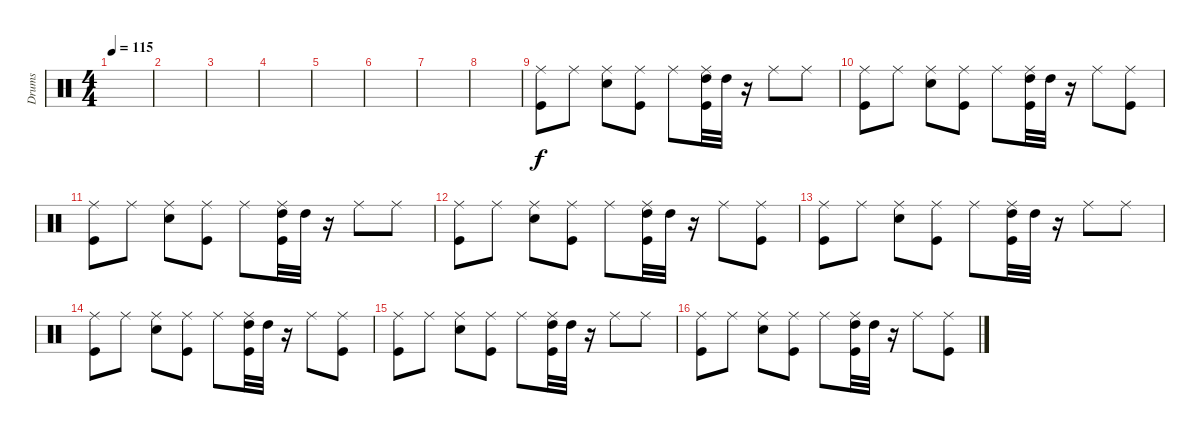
\track ("Drums" "Drums") {instrument percussion}
\staff {score}
\articulation defaults
\ts (4 4)
\tempo 115
\clef neutral
\ks c
|
|
|
|
|
|
|
|
("Kick (hit)" "Ride (middle)").8 "Ride (middle)".8 ("Snare (hit) 2" "Ride (middle)").8 ("Kick (hit)" "Ride (middle)").8 "Ride (middle)".8 ("Kick (hit)" "High Tom (hit)" "Ride (middle)").32 "High Tom (hit)".32 r.16 "Ride (middle)".8 "Ride (middle)".8 |
("Kick (hit)" "Ride (middle)").8 "Ride (middle)".8 ("Snare (hit) 2" "Ride (middle)").8 ("Kick (hit)" "Ride (middle)").8 "Ride (middle)".8 ("Kick (hit)" "High Tom (hit)" "Ride (middle)").32 "High Tom (hit)".32 r.16 "Ride (middle)".8 ("Kick (hit)" "Ride (middle)").8 |
("Kick (hit)" "Ride (middle)").8 "Ride (middle)".8 ("Snare (hit) 2" "Ride (middle)").8 ("Kick (hit)" "Ride (middle)").8 "Ride (middle)".8 ("Kick (hit)" "High Tom (hit)" "Ride (middle)").32 "High Tom (hit)".32 r.16 "Ride (middle)".8 "Ride (middle)".8 |
("Kick (hit)" "Ride (middle)").8 "Ride (middle)".8 ("Snare (hit) 2" "Ride (middle)").8 ("Kick (hit)" "Ride (middle)").8 "Ride (middle)".8 ("Kick (hit)" "High Tom (hit)" "Ride (middle)").32 "High Tom (hit)".32 r.16 "Ride (middle)".8 ("Kick (hit)" "Ride (middle)").8 |
("Kick (hit)" "Ride (middle)").8 "Ride (middle)".8 ("Snare (hit) 2" "Ride (middle)").8 ("Kick (hit)" "Ride (middle)").8 "Ride (middle)".8 ("Kick (hit)" "High Tom (hit)" "Ride (middle)").32 "High Tom (hit)".32 r.16 "Ride (middle)".8 "Ride (middle)".8 |
("Kick (hit)" "Ride (middle)").8 "Ride (middle)".8 ("Snare (hit) 2" "Ride (middle)").8 ("Kick (hit)" "Ride (middle)").8 "Ride (middle)".8 ("Kick (hit)" "High Tom (hit)" "Ride (middle)").32 "High Tom (hit)".32 r.16 "Ride (middle)".8 ("Kick (hit)" "Ride (middle)").8 |
("Kick (hit)" "Ride (middle)").8 "Ride (middle)".8 ("Snare (hit) 2" "Ride (middle)").8 ("Kick (hit)" "Ride (middle)").8 "Ride (middle)".8 ("Kick (hit)" "High Tom (hit)" "Ride (middle)").32 "High Tom (hit)".32 r.16 "Ride (middle)".8 "Ride (middle)".8 |
("Kick (hit)" "Ride (middle)").8 "Ride (middle)".8 ("Snare (hit) 2" "Ride (middle)").8 ("Kick (hit)" "Ride (middle)").8 "Ride (middle)".8 ("Kick (hit)" "High Tom (hit)" "Ride (middle)").32 "High Tom (hit)".32 r.16 "Ride (middle)".8 ("Kick (hit)" "Ride (middle)").8
